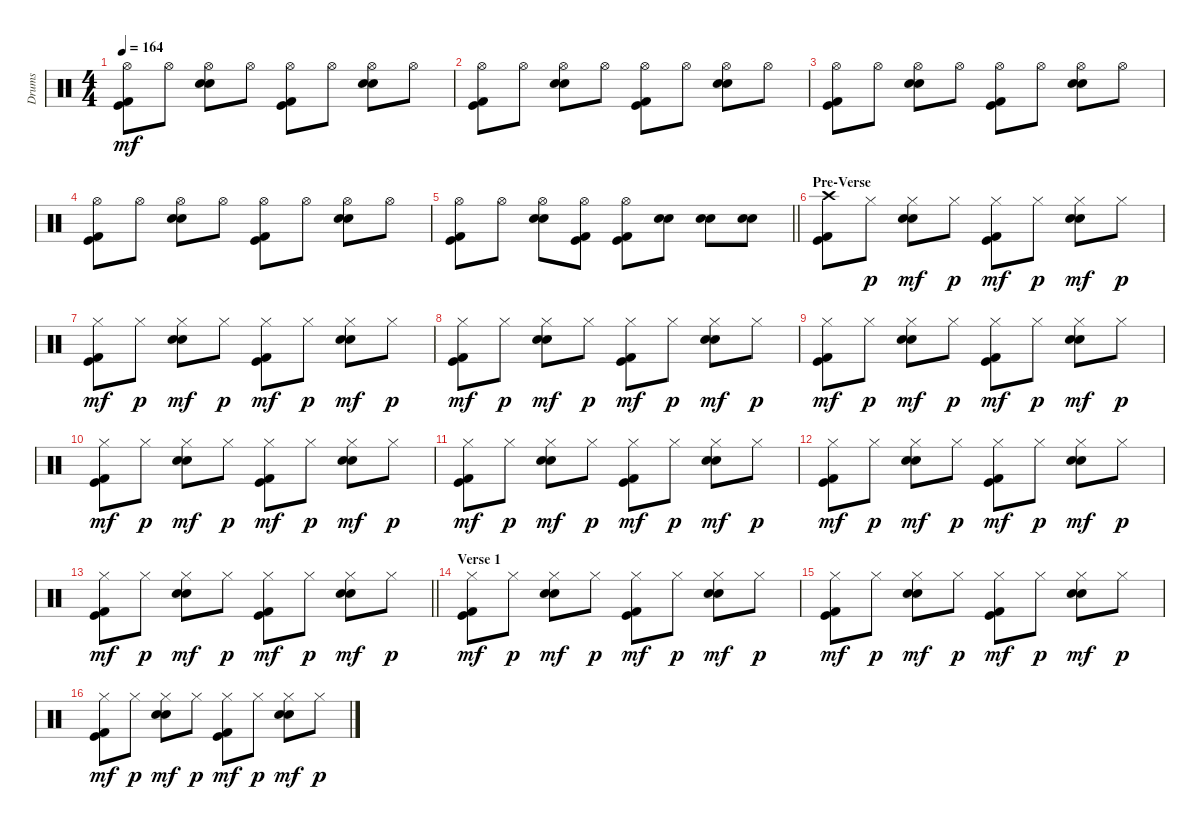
\track ("Drums" "Drums") {instrument percussion}
\staff {score}
\articulation defaults
\ts (4 4)
\tempo 164
\clef neutral
\ks c
("Hi-Hat (open)" "Kick (hit) 2" "Kick (hit)").8{dy mf} "Hi-Hat (open)".8 ("Hi-Hat (open)" "Snare (hit) 2" "Electric Snare (hit)").8 "Hi-Hat (open)".8 ("Hi-Hat (open)" "Kick (hit) 2" "Kick (hit)").8 "Hi-Hat (open)".8 ("Hi-Hat (open)" "Snare (hit) 2" "Electric Snare (hit)").8 "Hi-Hat (open)".8 |
("Hi-Hat (open)" "Kick (hit) 2" "Kick (hit)").8 "Hi-Hat (open)".8 ("Hi-Hat (open)" "Snare (hit) 2" "Electric Snare (hit)").8 "Hi-Hat (open)".8 ("Hi-Hat (open)" "Kick (hit) 2" "Kick (hit)").8 "Hi-Hat (open)".8 ("Hi-Hat (open)" "Snare (hit) 2" "Electric Snare (hit)").8 "Hi-Hat (open)".8 |
("Hi-Hat (open)" "Kick (hit) 2" "Kick (hit)").8 "Hi-Hat (open)".8 ("Hi-Hat (open)" "Snare (hit) 2" "Electric Snare (hit)").8 "Hi-Hat (open)".8 ("Hi-Hat (open)" "Kick (hit) 2" "Kick (hit)").8 "Hi-Hat (open)".8 ("Hi-Hat (open)" "Snare (hit) 2" "Electric Snare (hit)").8 "Hi-Hat (open)".8 |
("Hi-Hat (open)" "Kick (hit) 2" "Kick (hit)").8 "Hi-Hat (open)".8 ("Hi-Hat (open)" "Snare (hit) 2" "Electric Snare (hit)").8 "Hi-Hat (open)".8 ("Hi-Hat (open)" "Kick (hit) 2" "Kick (hit)").8 "Hi-Hat (open)".8 ("Hi-Hat (open)" "Snare (hit) 2" "Electric Snare (hit)").8 "Hi-Hat (open)".8 |
\barLineRight lightlight
("Hi-Hat (open)" "Kick (hit) 2" "Kick (hit)").8 "Hi-Hat (open)".8 ("Hi-Hat (open)" "Snare (hit) 2" "Electric Snare (hit)").8 ("Hi-Hat (open)" "Kick (hit) 2" "Kick (hit)").8 ("Hi-Hat (open)" "Kick (hit) 2" "Kick (hit)").8 ("Snare (hit) 2" "Electric Snare (hit)").8 ("Snare (hit) 2" "Electric Snare (hit)").8 ("Snare (hit) 2" "Electric Snare (hit)").8 |
\section ("" "Pre-Verse")
("Crash high (hit)" "Kick (hit) 2" "Kick (hit)").8 "Hi-Hat (closed)".8{dy p} ("Hi-Hat (closed)" "Snare (hit) 2" "Electric Snare (hit)").8{dy mf} "Hi-Hat (closed)".8{dy p} ("Hi-Hat (closed)" "Kick (hit) 2" "Kick (hit)").8{dy mf} "Hi-Hat (closed)".8{dy p} ("Hi-Hat (closed)" "Snare (hit) 2" "Electric Snare (hit)").8{dy mf} "Hi-Hat (closed)".8{dy p} |
("Hi-Hat (closed)" "Kick (hit) 2" "Kick (hit)").8{dy mf} "Hi-Hat (closed)".8{dy p} ("Hi-Hat (closed)" "Snare (hit) 2" "Electric Snare (hit)").8{dy mf} "Hi-Hat (closed)".8{dy p} ("Hi-Hat (closed)" "Kick (hit) 2" "Kick (hit)").8{dy mf} "Hi-Hat (closed)".8{dy p} ("Hi-Hat (closed)" "Snare (hit) 2" "Electric Snare (hit)").8{dy mf} "Hi-Hat (closed)".8{dy p} |
("Hi-Hat (closed)" "Kick (hit) 2" "Kick (hit)").8{dy mf} "Hi-Hat (closed)".8{dy p} ("Hi-Hat (closed)" "Snare (hit) 2" "Electric Snare (hit)").8{dy mf} "Hi-Hat (closed)".8{dy p} ("Hi-Hat (closed)" "Kick (hit) 2" "Kick (hit)").8{dy mf} "Hi-Hat (closed)".8{dy p} ("Hi-Hat (closed)" "Snare (hit) 2" "Electric Snare (hit)").8{dy mf} "Hi-Hat (closed)".8{dy p} |
("Hi-Hat (closed)" "Kick (hit) 2" "Kick (hit)").8{dy mf} "Hi-Hat (closed)".8{dy p} ("Hi-Hat (closed)" "Snare (hit) 2" "Electric Snare (hit)").8{dy mf} "Hi-Hat (closed)".8{dy p} ("Hi-Hat (closed)" "Kick (hit) 2" "Kick (hit)").8{dy mf} "Hi-Hat (closed)".8{dy p} ("Hi-Hat (closed)" "Snare (hit) 2" "Electric Snare (hit)").8{dy mf} "Hi-Hat (closed)".8{dy p} |
("Hi-Hat (closed)" "Kick (hit) 2" "Kick (hit)").8{dy mf} "Hi-Hat (closed)".8{dy p} ("Hi-Hat (closed)" "Snare (hit) 2" "Electric Snare (hit)").8{dy mf} "Hi-Hat (closed)".8{dy p} ("Hi-Hat (closed)" "Kick (hit) 2" "Kick (hit)").8{dy mf} "Hi-Hat (closed)".8{dy p} ("Hi-Hat (closed)" "Snare (hit) 2" "Electric Snare (hit)").8{dy mf} "Hi-Hat (closed)".8{dy p} |
("Hi-Hat (closed)" "Kick (hit) 2" "Kick (hit)").8{dy mf} "Hi-Hat (closed)".8{dy p} ("Hi-Hat (closed)" "Snare (hit) 2" "Electric Snare (hit)").8{dy mf} "Hi-Hat (closed)".8{dy p} ("Hi-Hat (closed)" "Kick (hit) 2" "Kick (hit)").8{dy mf} "Hi-Hat (closed)".8{dy p} ("Hi-Hat (closed)" "Snare (hit) 2" "Electric Snare (hit)").8{dy mf} "Hi-Hat (closed)".8{dy p} |
("Hi-Hat (closed)" "Kick (hit) 2" "Kick (hit)").8{dy mf} "Hi-Hat (closed)".8{dy p} ("Hi-Hat (closed)" "Snare (hit) 2" "Electric Snare (hit)").8{dy mf} "Hi-Hat (closed)".8{dy p} ("Hi-Hat (closed)" "Kick (hit) 2" "Kick (hit)").8{dy mf} "Hi-Hat (closed)".8{dy p} ("Hi-Hat (closed)" "Snare (hit) 2" "Electric Snare (hit)").8{dy mf} "Hi-Hat (closed)".8{dy p} |
\barLineRight lightlight
("Hi-Hat (closed)" "Kick (hit) 2" "Kick (hit)").8{dy mf} "Hi-Hat (closed)".8{dy p} ("Hi-Hat (closed)" "Snare (hit) 2" "Electric Snare (hit)").8{dy mf} "Hi-Hat (closed)".8{dy p} ("Hi-Hat (closed)" "Kick (hit) 2" "Kick (hit)").8{dy mf} "Hi-Hat (closed)".8{dy p} ("Hi-Hat (closed)" "Snare (hit) 2" "Electric Snare (hit)").8{dy mf} "Hi-Hat (closed)".8{dy p} |
\section ("" "Verse 1")
("Hi-Hat (closed)" "Kick (hit) 2" "Kick (hit)").8{dy mf} "Hi-Hat (closed)".8{dy p} ("Hi-Hat (closed)" "Snare (hit) 2" "Electric Snare (hit)").8{dy mf} "Hi-Hat (closed)".8{dy p} ("Hi-Hat (closed)" "Kick (hit) 2" "Kick (hit)").8{dy mf} "Hi-Hat (closed)".8{dy p} ("Hi-Hat (closed)" "Snare (hit) 2" "Electric Snare (hit)").8{dy mf} "Hi-Hat (closed)".8{dy p} |
("Hi-Hat (closed)" "Kick (hit) 2" "Kick (hit)").8{dy mf} "Hi-Hat (closed)".8{dy p} ("Hi-Hat (closed)" "Snare (hit) 2" "Electric Snare (hit)").8{dy mf} "Hi-Hat (closed)".8{dy p} ("Hi-Hat (closed)" "Kick (hit) 2" "Kick (hit)").8{dy mf} "Hi-Hat (closed)".8{dy p} ("Hi-Hat (closed)" "Snare (hit) 2" "Electric Snare (hit)").8{dy mf} "Hi-Hat (closed)".8{dy p} |
("Hi-Hat (closed)" "Kick (hit) 2" "Kick (hit)").8{dy mf} "Hi-Hat (closed)".8{dy p} ("Hi-Hat (closed)" "Snare (hit) 2" "Electric Snare (hit)").8{dy mf} "Hi-Hat (closed)".8{dy p} ("Hi-Hat (closed)" "Kick (hit) 2" "Kick (hit)").8{dy mf} "Hi-Hat (closed)".8{dy p} ("Hi-Hat (closed)" "Snare (hit) 2" "Electric Snare (hit)").8{dy mf} "Hi-Hat (closed)".8{dy p}
